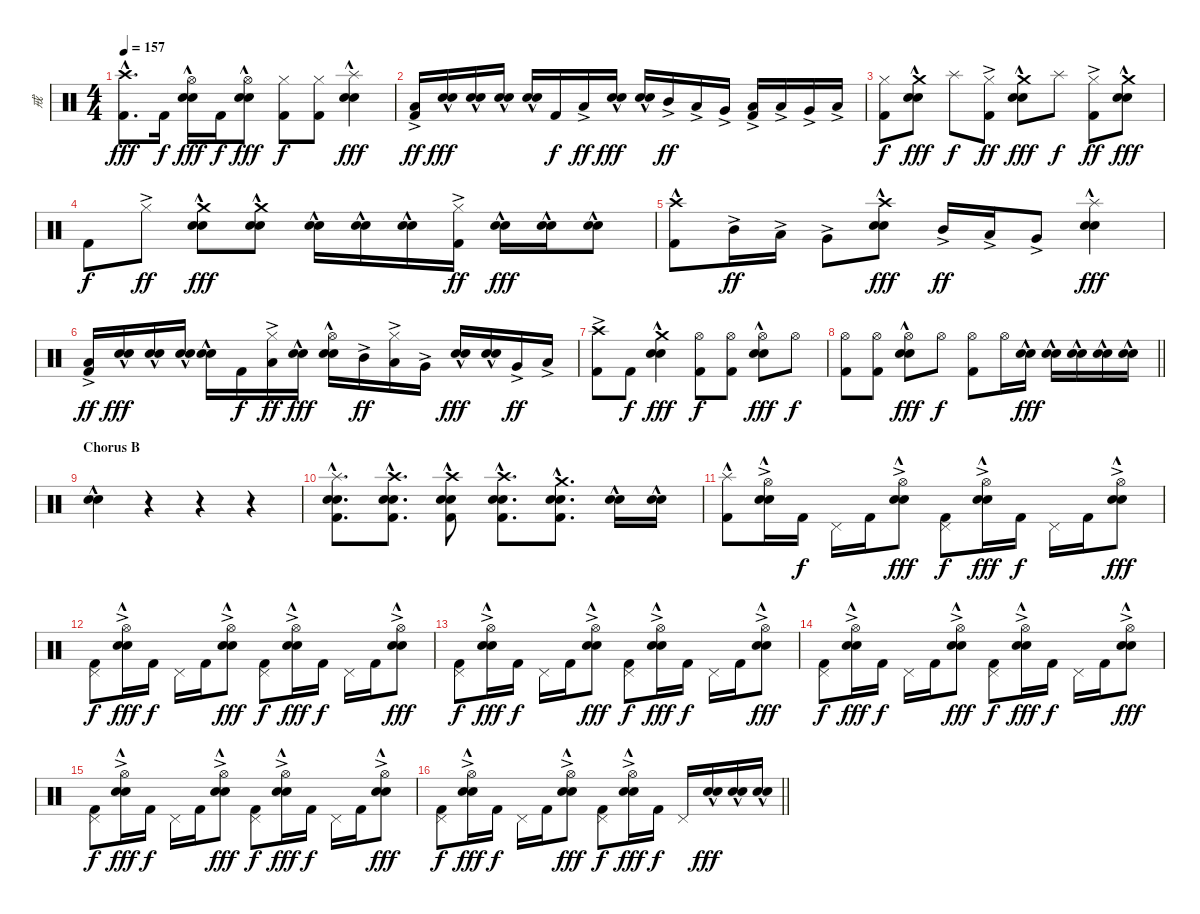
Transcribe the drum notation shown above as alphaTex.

\track ("戒" "戒") {instrument percussion}
\staff {score}
\articulation defaults
\ts (4 4)
\section ("" "")
\tempo 157
\clef neutral
\ks c
("Crash high (hit)"{hac} "Kick (hit) 2").8{d dy fff} "Kick (hit) 2".16{dy f} ("Hi-Hat (open)" "Electric Snare (hit)"{hac} "Snare (hit) 2").16{dy fff} "Kick (hit) 2".16{dy f} ("Hi-Hat (open)" "Electric Snare (hit)"{hac} "Snare (hit) 2").8{dy fff} ("Hi-Hat (closed)" "Kick (hit) 2").8{dy f} ("Hi-Hat (closed)" "Kick (hit) 2").8 ("Splash (hit)"{hac} "Electric Snare (hit)"{hac} "Snare (hit) 2").4{dy fff} |
("Low Tom (hit)"{ac} "Kick (hit) 2").16{dy ff} ("Electric Snare (hit)"{hac} "Snare (hit) 2").16{dy fff} ("Electric Snare (hit)"{hac} "Snare (hit) 2").16 ("Electric Snare (hit)"{hac} "Snare (hit) 2").16 ("Electric Snare (hit)"{hac} "Snare (hit) 2").16 "Kick (hit) 2".16{dy f} "Low Tom (hit)"{ac}.16{dy ff} ("Electric Snare (hit)"{hac} "Snare (hit) 2").16{dy fff} ("Electric Snare (hit)"{hac} "Snare (hit) 2").16 "Mid Tom (hit)"{ac}.16{dy ff} "Low Tom (hit)"{ac}.16 "Very Low Tom (hit)"{ac}.16 ("Low Tom (hit)"{ac} "Kick (hit) 2").16 "Low Tom (hit)"{ac}.16 "Very Low Tom (hit)"{ac}.16 "Low Floor Tom (hit)"{ac}.16 |
("Hi-Hat (closed)" "Kick (hit) 2").8{dy f} ("Crash medium (hit)" "Electric Snare (hit)"{hac} "Snare (hit) 2").8{dy fff} "Splash (hit)".8{dy f} ("Hi-Hat (closed)"{ac} "Kick (hit) 2").8{dy ff} ("Crash medium (hit)" "Electric Snare (hit)"{hac} "Snare (hit) 2").8{dy fff} "Splash (hit)".8{dy f} ("Hi-Hat (closed)"{ac} "Kick (hit) 2").8{dy ff} ("Crash medium (hit)" "Electric Snare (hit)"{hac} "Snare (hit) 2").8{dy fff} |
"Kick (hit) 2".8{dy f} "Hi-Hat (closed)"{ac}.8{dy ff} ("Crash medium (hit)" "Electric Snare (hit)"{hac} "Snare (hit) 2").8{dy fff} ("Crash medium (hit)" "Electric Snare (hit)"{hac} "Snare (hit) 2").8 ("Electric Snare (hit)"{hac} "Snare (hit) 2").16 ("Electric Snare (hit)"{hac} "Snare (hit) 2").16 ("Electric Snare (hit)"{hac} "Snare (hit) 2").16 ("Hi-Hat (closed)"{ac} "Kick (hit) 2").16{dy ff} ("Electric Snare (hit)"{hac} "Snare (hit) 2").16{dy fff} ("Electric Snare (hit)"{hac} "Snare (hit) 2").16 ("Electric Snare (hit)"{hac} "Snare (hit) 2").8 |
("Crash high (hit)"{hac} "Kick (hit) 2").8 "Mid Tom (hit)"{ac}.16{dy ff} "Low Tom (hit)"{ac}.16 "Very Low Tom (hit)"{ac}.8 ("Crash high (hit)"{hac} "Electric Snare (hit)"{hac} "Snare (hit) 2").8{dy fff} "Mid Tom (hit)"{ac}.16{dy ff} "Low Tom (hit)"{ac}.16 "Very Low Tom (hit)"{ac}.8 ("Splash (hit)"{hac} "Electric Snare (hit)"{hac} "Snare (hit) 2").4{dy fff} |
("Low Tom (hit)"{ac} "Kick (hit) 2").16{dy ff} ("Electric Snare (hit)"{hac} "Snare (hit) 2").16{dy fff} ("Electric Snare (hit)"{hac} "Snare (hit) 2").16 ("Electric Snare (hit)"{hac} "Snare (hit) 2").16 ("Electric Snare (hit)"{hac} "Snare (hit) 2").16 "Kick (hit) 2".16{dy f} ("Hi-Hat (closed)" "Low Tom (hit)"{ac}).16{dy ff} ("Electric Snare (hit)"{hac} "Snare (hit) 2").16{dy fff} ("Hi-Hat (open)" "Electric Snare (hit)"{hac} "Snare (hit) 2").16 "Mid Tom (hit)"{ac}.16{dy ff} ("Hi-Hat (closed)" "Low Tom (hit)"{ac}).16 "Very Low Tom (hit)"{ac}.16 ("Electric Snare (hit)"{hac} "Snare (hit) 2").16{dy fff} ("Electric Snare (hit)"{hac} "Snare (hit) 2").16 "Very Low Tom (hit)"{ac}.16{dy ff} "Low Floor Tom (hit)"{ac}.16 |
("Crash high (hit)"{ac} "Kick (hit) 2").8 "Kick (hit) 2".8{dy f} ("Crash medium (hit)"{hac} "Electric Snare (hit)"{hac} "Snare (hit) 2").4{dy fff} ("Hi-Hat (open)" "Kick (hit) 2").8{dy f} ("Hi-Hat (open)" "Kick (hit) 2").8 ("Hi-Hat (open)" "Electric Snare (hit)"{hac} "Snare (hit) 2").8{dy fff} "Hi-Hat (open)".8{dy f} |
\barLineRight lightlight
("Hi-Hat (open)" "Kick (hit) 2").8 ("Hi-Hat (open)" "Kick (hit) 2").8 ("Hi-Hat (open)" "Electric Snare (hit)"{hac} "Snare (hit) 2").8{dy fff} "Hi-Hat (open)".8{dy f} ("Hi-Hat (open)" "Kick (hit) 2").8 "Hi-Hat (open)".16 ("Electric Snare (hit)"{hac} "Snare (hit) 2").16{dy fff} ("Electric Snare (hit)"{hac} "Snare (hit) 2").16 ("Electric Snare (hit)"{hac} "Snare (hit) 2").16 ("Electric Snare (hit)"{hac} "Snare (hit) 2").16 ("Electric Snare (hit)"{hac} "Snare (hit) 2").16 |
\section ("" "Chorus B")
("Electric Snare (hit)"{hac} "Snare (hit) 2").4 r.4 r.4 r.4 |
("Splash (hit)"{hac} "Electric Snare (hit)"{hac} "Snare (hit) 2" "Kick (hit) 2").8{d} ("Crash high (hit)" "Electric Snare (hit)"{hac} "Snare (hit) 2" "Kick (hit) 2").8{d} ("Crash high (hit)" "Electric Snare (hit)"{hac} "Snare (hit) 2" "Kick (hit) 2").8 ("Crash high (hit)" "Electric Snare (hit)"{hac} "Snare (hit) 2" "Kick (hit) 2").8{d} ("Crash medium (hit)" "Electric Snare (hit)"{hac} "Snare (hit) 2" "Kick (hit) 2").8{d} ("Electric Snare (hit)"{hac} "Snare (hit) 2").16 ("Electric Snare (hit)"{hac} "Snare (hit) 2").16 |
("Splash (hit)"{hac} "Kick (hit) 2").8 ("Hi-Hat (open)"{ac} "Electric Snare (hit)"{hac} "Snare (hit) 2").16 "Kick (hit) 2".16{dy f} "Pedal Hi-Hat (hit)".16 "Kick (hit) 2".16 ("Hi-Hat (open)"{ac} "Electric Snare (hit)"{hac} "Snare (hit) 2").8{dy fff} ("Pedal Hi-Hat (hit)" "Kick (hit) 2").8{dy f} ("Hi-Hat (open)"{ac} "Electric Snare (hit)"{hac} "Snare (hit) 2").16{dy fff} "Kick (hit) 2".16{dy f} "Pedal Hi-Hat (hit)".16 "Kick (hit) 2".16 ("Hi-Hat (open)"{ac} "Electric Snare (hit)"{hac} "Snare (hit) 2").8{dy fff} |
("Pedal Hi-Hat (hit)" "Kick (hit) 2").8{dy f} ("Hi-Hat (open)"{ac} "Electric Snare (hit)"{hac} "Snare (hit) 2").16{dy fff} "Kick (hit) 2".16{dy f} "Pedal Hi-Hat (hit)".16 "Kick (hit) 2".16 ("Hi-Hat (open)"{ac} "Electric Snare (hit)"{hac} "Snare (hit) 2").8{dy fff} ("Pedal Hi-Hat (hit)" "Kick (hit) 2").8{dy f} ("Hi-Hat (open)"{ac} "Electric Snare (hit)"{hac} "Snare (hit) 2").16{dy fff} "Kick (hit) 2".16{dy f} "Pedal Hi-Hat (hit)".16 "Kick (hit) 2".16 ("Hi-Hat (open)"{ac} "Electric Snare (hit)"{hac} "Snare (hit) 2").8{dy fff} |
("Pedal Hi-Hat (hit)" "Kick (hit) 2").8{dy f} ("Hi-Hat (open)"{ac} "Electric Snare (hit)"{hac} "Snare (hit) 2").16{dy fff} "Kick (hit) 2".16{dy f} "Pedal Hi-Hat (hit)".16 "Kick (hit) 2".16 ("Hi-Hat (open)"{ac} "Electric Snare (hit)"{hac} "Snare (hit) 2").8{dy fff} ("Pedal Hi-Hat (hit)" "Kick (hit) 2").8{dy f} ("Hi-Hat (open)"{ac} "Electric Snare (hit)"{hac} "Snare (hit) 2").16{dy fff} "Kick (hit) 2".16{dy f} "Pedal Hi-Hat (hit)".16 "Kick (hit) 2".16 ("Hi-Hat (open)"{ac} "Electric Snare (hit)"{hac} "Snare (hit) 2").8{dy fff} |
("Pedal Hi-Hat (hit)" "Kick (hit) 2").8{dy f} ("Hi-Hat (open)"{ac} "Electric Snare (hit)"{hac} "Snare (hit) 2").16{dy fff} "Kick (hit) 2".16{dy f} "Pedal Hi-Hat (hit)".16 "Kick (hit) 2".16 ("Hi-Hat (open)"{ac} "Electric Snare (hit)"{hac} "Snare (hit) 2").8{dy fff} ("Pedal Hi-Hat (hit)" "Kick (hit) 2").8{dy f} ("Hi-Hat (open)"{ac} "Electric Snare (hit)"{hac} "Snare (hit) 2").16{dy fff} "Kick (hit) 2".16{dy f} "Pedal Hi-Hat (hit)".16 "Kick (hit) 2".16 ("Hi-Hat (open)"{ac} "Electric Snare (hit)"{hac} "Snare (hit) 2").8{dy fff} |
("Pedal Hi-Hat (hit)" "Kick (hit) 2").8{dy f} ("Hi-Hat (open)"{ac} "Electric Snare (hit)"{hac} "Snare (hit) 2").16{dy fff} "Kick (hit) 2".16{dy f} "Pedal Hi-Hat (hit)".16 "Kick (hit) 2".16 ("Hi-Hat (open)"{ac} "Electric Snare (hit)"{hac} "Snare (hit) 2").8{dy fff} ("Pedal Hi-Hat (hit)" "Kick (hit) 2").8{dy f} ("Hi-Hat (open)"{ac} "Electric Snare (hit)"{hac} "Snare (hit) 2").16{dy fff} "Kick (hit) 2".16{dy f} "Pedal Hi-Hat (hit)".16 "Kick (hit) 2".16 ("Hi-Hat (open)"{ac} "Electric Snare (hit)"{hac} "Snare (hit) 2").8{dy fff} |
\barLineRight lightlight
("Pedal Hi-Hat (hit)" "Kick (hit) 2").8{dy f} ("Hi-Hat (open)"{ac} "Electric Snare (hit)"{hac} "Snare (hit) 2").16{dy fff} "Kick (hit) 2".16{dy f} "Pedal Hi-Hat (hit)".16 "Kick (hit) 2".16 ("Hi-Hat (open)"{ac} "Electric Snare (hit)"{hac} "Snare (hit) 2").8{dy fff} ("Pedal Hi-Hat (hit)" "Kick (hit) 2").8{dy f} ("Hi-Hat (open)"{ac} "Electric Snare (hit)"{hac} "Snare (hit) 2").16{dy fff} "Kick (hit) 2".16{dy f} "Pedal Hi-Hat (hit)".16 ("Electric Snare (hit)"{hac} "Snare (hit) 2").16{dy fff} ("Electric Snare (hit)"{hac} "Snare (hit) 2").16 ("Electric Snare (hit)"{hac} "Snare (hit) 2").16
